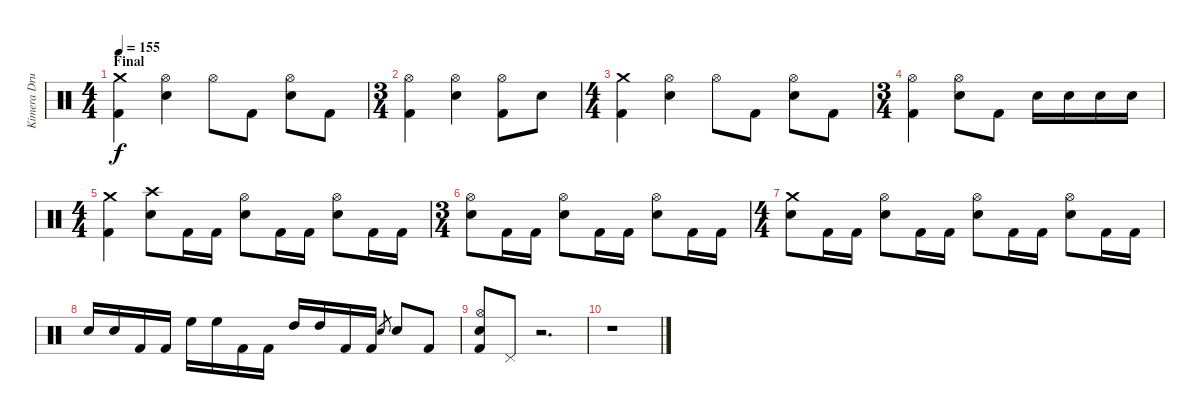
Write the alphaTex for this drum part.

\track ("Kimera Drummer" "Kimera Dru") {instrument percussion}
\staff {score}
\articulation defaults
\ts (4 4)
\section ("" "Final")
\tempo 155
\clef neutral
\ks c
("Crash medium (hit)" "Kick (hit) 2").4{dy f} ("Hi-Hat (open)" "Electric Snare (hit)").4 "Hi-Hat (open)".8 "Kick (hit) 2".8 ("Hi-Hat (open)" "Electric Snare (hit)").8 "Kick (hit) 2".8 |
\ts (3 4)
("Hi-Hat (open)" "Kick (hit) 2").4 ("Hi-Hat (open)" "Electric Snare (hit)").4 ("Hi-Hat (open)" "Kick (hit) 2").8 "Electric Snare (hit)".8 |
\ts (4 4)
("Crash medium (hit)" "Kick (hit) 2").4 ("Hi-Hat (open)" "Electric Snare (hit)").4 "Hi-Hat (open)".8 "Kick (hit) 2".8 ("Hi-Hat (open)" "Electric Snare (hit)").8 "Kick (hit) 2".8 |
\ts (3 4)
("Hi-Hat (open)" "Kick (hit) 2").4 ("Hi-Hat (open)" "Electric Snare (hit)").8 "Kick (hit) 2".8 "Electric Snare (hit)".16 "Electric Snare (hit)".16 "Electric Snare (hit)".16 "Electric Snare (hit)".16 |
\ts (4 4)
("Crash medium (hit)" "Kick (hit) 2").4 ("Crash high (hit)" "Electric Snare (hit)").8 "Kick (hit) 2".16 "Kick (hit) 2".16 ("Hi-Hat (open)" "Electric Snare (hit)").8 "Kick (hit) 2".16 "Kick (hit) 2".16 ("Hi-Hat (open)" "Electric Snare (hit)").8 "Kick (hit) 2".16 "Kick (hit) 2".16 |
\ts (3 4)
("Hi-Hat (open)" "Electric Snare (hit)").8 "Kick (hit) 2".16 "Kick (hit) 2".16 ("Hi-Hat (open)" "Electric Snare (hit)").8 "Kick (hit) 2".16 "Kick (hit) 2".16 ("Hi-Hat (open)" "Electric Snare (hit)").8 "Kick (hit) 2".16 "Kick (hit) 2".16 |
\ts (4 4)
("Crash medium (hit)" "Electric Snare (hit)").8 "Kick (hit) 2".16 "Kick (hit) 2".16 ("Hi-Hat (open)" "Electric Snare (hit)").8 "Kick (hit) 2".16 "Kick (hit) 2".16 ("Hi-Hat (open)" "Electric Snare (hit)").8 "Kick (hit) 2".16 "Kick (hit) 2".16 ("Hi-Hat (open)" "Electric Snare (hit)").8 "Kick (hit) 2".16 "Kick (hit) 2".16 |
"Electric Snare (hit)".16 "Electric Snare (hit)".16 "Kick (hit) 2".16 "Kick (hit) 2".16 "High Floor Tom (hit)".16 "High Floor Tom (hit)".16 "Kick (hit) 2".16 "Kick (hit) 2".16 "High Tom (hit)".16 "High Tom (hit)".16 "Kick (hit) 2".16 "Kick (hit) 2".16 "Electric Snare (hit)".8{gr} "Electric Snare (hit)".8 "Kick (hit) 2".8 |
("Hi-Hat (open)" "Electric Snare (hit)" "Kick (hit) 2").8 "Pedal Hi-Hat (hit)".8 r.2{d} |
r.1
